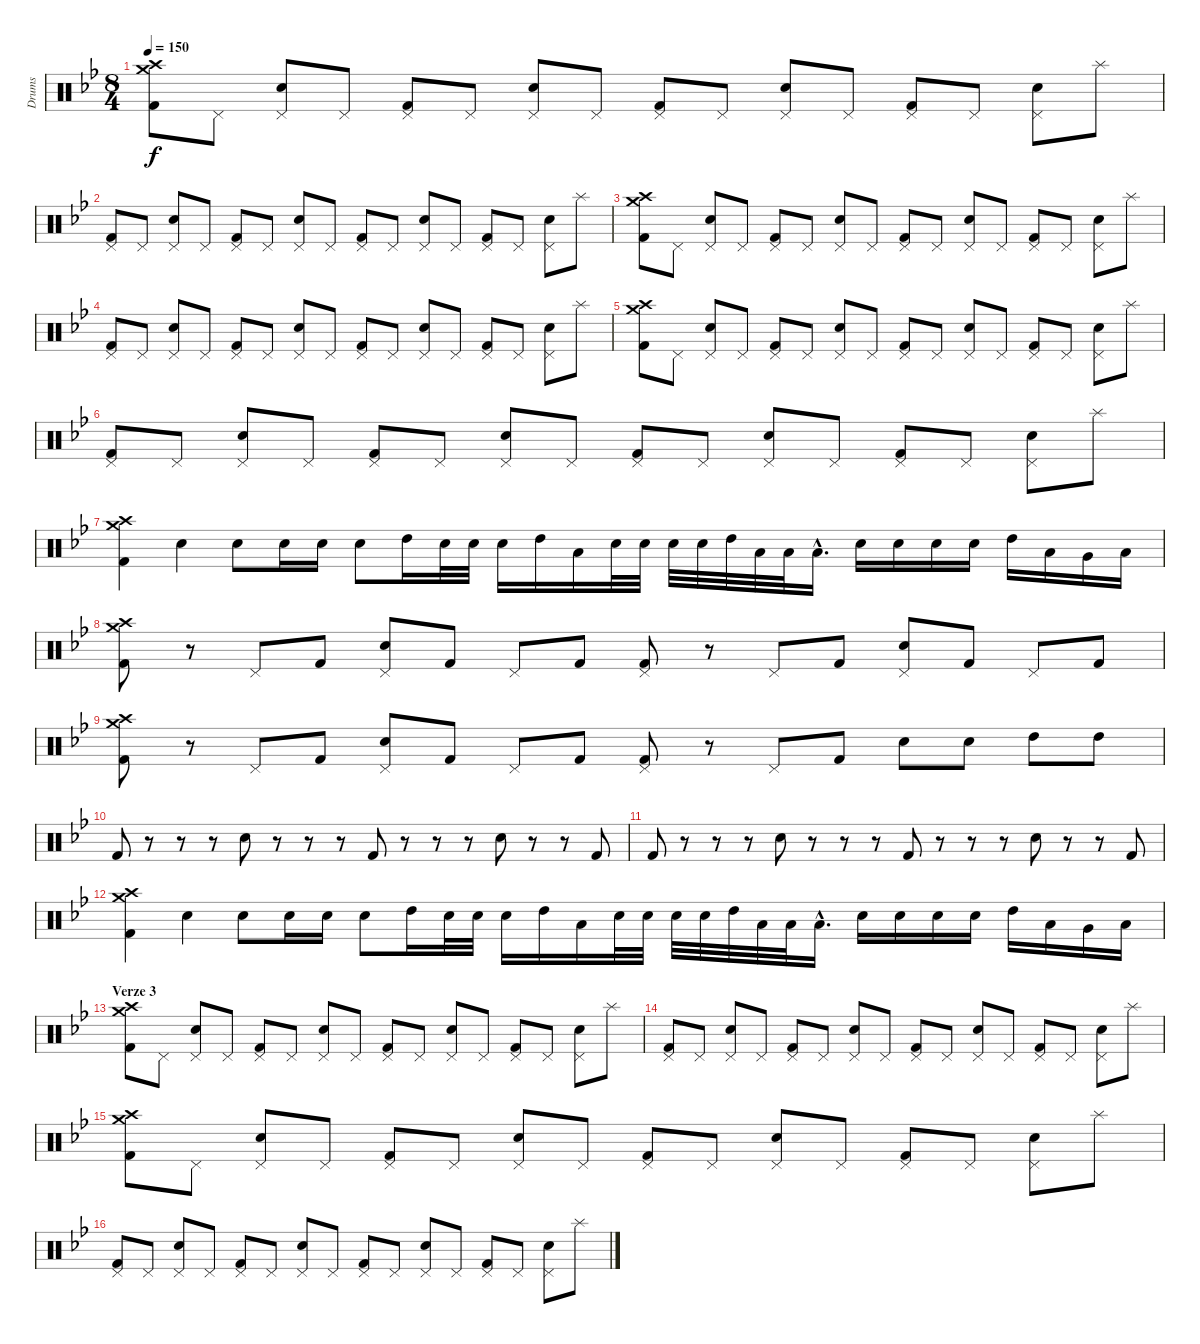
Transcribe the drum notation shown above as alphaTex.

\track ("Drums" "Drums") {instrument percussion}
\staff {score}
\articulation defaults
\ts (8 4)
\tempo 150
\clef neutral
\ks gminor
("Crash medium (hit)" "Crash high (hit)" "Kick (hit) 2").8{dy f} "Pedal Hi-Hat (hit)".8 ("Pedal Hi-Hat (hit)" "Snare (hit) 2").8 "Pedal Hi-Hat (hit)".8 ("Pedal Hi-Hat (hit)" "Kick (hit) 2").8 "Pedal Hi-Hat (hit)".8 ("Pedal Hi-Hat (hit)" "Snare (hit) 2").8 "Pedal Hi-Hat (hit)".8 ("Pedal Hi-Hat (hit)" "Kick (hit) 2").8 "Pedal Hi-Hat (hit)".8 ("Pedal Hi-Hat (hit)" "Snare (hit) 2").8 "Pedal Hi-Hat (hit)".8 ("Pedal Hi-Hat (hit)" "Kick (hit) 2").8 "Pedal Hi-Hat (hit)".8 ("Pedal Hi-Hat (hit)" "Snare (hit) 2").8 "Splash (hit)".8 |
("Pedal Hi-Hat (hit)" "Kick (hit) 2").8 "Pedal Hi-Hat (hit)".8 ("Pedal Hi-Hat (hit)" "Snare (hit) 2").8 "Pedal Hi-Hat (hit)".8 ("Pedal Hi-Hat (hit)" "Kick (hit) 2").8 "Pedal Hi-Hat (hit)".8 ("Pedal Hi-Hat (hit)" "Snare (hit) 2").8 "Pedal Hi-Hat (hit)".8 ("Pedal Hi-Hat (hit)" "Kick (hit) 2").8 "Pedal Hi-Hat (hit)".8 ("Pedal Hi-Hat (hit)" "Snare (hit) 2").8 "Pedal Hi-Hat (hit)".8 ("Pedal Hi-Hat (hit)" "Kick (hit) 2").8 "Pedal Hi-Hat (hit)".8 ("Pedal Hi-Hat (hit)" "Snare (hit) 2").8 "Splash (hit)".8 |
("Crash medium (hit)" "Crash high (hit)" "Kick (hit) 2").8 "Pedal Hi-Hat (hit)".8 ("Pedal Hi-Hat (hit)" "Snare (hit) 2").8 "Pedal Hi-Hat (hit)".8 ("Pedal Hi-Hat (hit)" "Kick (hit) 2").8 "Pedal Hi-Hat (hit)".8 ("Pedal Hi-Hat (hit)" "Snare (hit) 2").8 "Pedal Hi-Hat (hit)".8 ("Pedal Hi-Hat (hit)" "Kick (hit) 2").8 "Pedal Hi-Hat (hit)".8 ("Pedal Hi-Hat (hit)" "Snare (hit) 2").8 "Pedal Hi-Hat (hit)".8 ("Pedal Hi-Hat (hit)" "Kick (hit) 2").8 "Pedal Hi-Hat (hit)".8 ("Pedal Hi-Hat (hit)" "Snare (hit) 2").8 "Splash (hit)".8 |
("Pedal Hi-Hat (hit)" "Kick (hit) 2").8 "Pedal Hi-Hat (hit)".8 ("Pedal Hi-Hat (hit)" "Snare (hit) 2").8 "Pedal Hi-Hat (hit)".8 ("Pedal Hi-Hat (hit)" "Kick (hit) 2").8 "Pedal Hi-Hat (hit)".8 ("Pedal Hi-Hat (hit)" "Snare (hit) 2").8 "Pedal Hi-Hat (hit)".8 ("Pedal Hi-Hat (hit)" "Kick (hit) 2").8 "Pedal Hi-Hat (hit)".8 ("Pedal Hi-Hat (hit)" "Snare (hit) 2").8 "Pedal Hi-Hat (hit)".8 ("Pedal Hi-Hat (hit)" "Kick (hit) 2").8 "Pedal Hi-Hat (hit)".8 ("Pedal Hi-Hat (hit)" "Snare (hit) 2").8 "Splash (hit)".8 |
("Crash medium (hit)" "Crash high (hit)" "Kick (hit) 2").8 "Pedal Hi-Hat (hit)".8 ("Pedal Hi-Hat (hit)" "Snare (hit) 2").8 "Pedal Hi-Hat (hit)".8 ("Pedal Hi-Hat (hit)" "Kick (hit) 2").8 "Pedal Hi-Hat (hit)".8 ("Pedal Hi-Hat (hit)" "Snare (hit) 2").8 "Pedal Hi-Hat (hit)".8 ("Pedal Hi-Hat (hit)" "Kick (hit) 2").8 "Pedal Hi-Hat (hit)".8 ("Pedal Hi-Hat (hit)" "Snare (hit) 2").8 "Pedal Hi-Hat (hit)".8 ("Pedal Hi-Hat (hit)" "Kick (hit) 2").8 "Pedal Hi-Hat (hit)".8 ("Pedal Hi-Hat (hit)" "Snare (hit) 2").8 "Splash (hit)".8 |
("Pedal Hi-Hat (hit)" "Kick (hit) 2").8 "Pedal Hi-Hat (hit)".8 ("Pedal Hi-Hat (hit)" "Snare (hit) 2").8 "Pedal Hi-Hat (hit)".8 ("Pedal Hi-Hat (hit)" "Kick (hit) 2").8 "Pedal Hi-Hat (hit)".8 ("Pedal Hi-Hat (hit)" "Snare (hit) 2").8 "Pedal Hi-Hat (hit)".8 ("Pedal Hi-Hat (hit)" "Kick (hit) 2").8 "Pedal Hi-Hat (hit)".8 ("Pedal Hi-Hat (hit)" "Snare (hit) 2").8 "Pedal Hi-Hat (hit)".8 ("Pedal Hi-Hat (hit)" "Kick (hit) 2").8 "Pedal Hi-Hat (hit)".8 ("Pedal Hi-Hat (hit)" "Snare (hit) 2").8 "Splash (hit)".8 |
("Crash medium (hit)" "Crash high (hit)" "Kick (hit) 2").4 "Snare (hit) 2".4 "Snare (hit) 2".8 "Snare (hit) 2".16 "Snare (hit) 2".16 "Snare (hit) 2".8 "High Tom (hit)".16 "Snare (hit) 2".32 "Snare (hit) 2".32 "Snare (hit) 2".16 "High Tom (hit)".16 "Low Tom (hit)".16 "Snare (hit) 2".32 "Snare (hit) 2".32 "Snare (hit) 2".32 "Snare (hit) 2".32 "High Tom (hit)".32 "Low Tom (hit)".32 "Low Tom (hit)".32 "Low Tom (hit)"{hac}.16{d} "Snare (hit) 2".16 "Snare (hit) 2".16 "Snare (hit) 2".16 "Snare (hit) 2".16 "High Tom (hit)".16 "Low Tom (hit)".16 "Very Low Tom (hit)".16 "Low Floor Tom (hit)".16 |
("Crash medium (hit)" "Crash high (hit)" "Kick (hit) 2").8 r.8 "Pedal Hi-Hat (hit)".8 "Kick (hit) 2".8 ("Pedal Hi-Hat (hit)" "Snare (hit) 2").8 "Kick (hit) 2".8 "Pedal Hi-Hat (hit)".8 "Kick (hit) 2".8 ("Pedal Hi-Hat (hit)" "Kick (hit) 2").8 r.8 "Pedal Hi-Hat (hit)".8 "Kick (hit) 2".8 ("Pedal Hi-Hat (hit)" "Snare (hit) 2").8 "Kick (hit) 2".8 "Pedal Hi-Hat (hit)".8 "Kick (hit) 2".8 |
("Crash medium (hit)" "Crash high (hit)" "Kick (hit) 2").8 r.8 "Pedal Hi-Hat (hit)".8 "Kick (hit) 2".8 ("Pedal Hi-Hat (hit)" "Snare (hit) 2").8 "Kick (hit) 2".8 "Pedal Hi-Hat (hit)".8 "Kick (hit) 2".8 ("Pedal Hi-Hat (hit)" "Kick (hit) 2").8 r.8 "Pedal Hi-Hat (hit)".8 "Kick (hit) 2".8 "Electric Snare (hit)".8 "Snare (hit) 2".8 "High Tom (hit)".8 "High Tom (hit)".8 |
"Kick (hit) 2".8 r.8 r.8 r.8 "Snare (hit) 2".8 r.8 r.8 r.8 "Kick (hit) 2".8 r.8 r.8 r.8 "Snare (hit) 2".8 r.8 r.8 "Kick (hit) 2".8 |
"Kick (hit) 2".8 r.8 r.8 r.8 "Snare (hit) 2".8 r.8 r.8 r.8 "Kick (hit) 2".8 r.8 r.8 r.8 "Snare (hit) 2".8 r.8 r.8 "Kick (hit) 2".8 |
("Crash medium (hit)" "Crash high (hit)" "Kick (hit) 2").4 "Snare (hit) 2".4 "Snare (hit) 2".8 "Snare (hit) 2".16 "Snare (hit) 2".16 "Snare (hit) 2".8 "High Tom (hit)".16 "Snare (hit) 2".32 "Snare (hit) 2".32 "Snare (hit) 2".16 "High Tom (hit)".16 "Low Tom (hit)".16 "Snare (hit) 2".32 "Snare (hit) 2".32 "Snare (hit) 2".32 "Snare (hit) 2".32 "High Tom (hit)".32 "Low Tom (hit)".32 "Low Tom (hit)".32 "Low Tom (hit)"{hac}.16{d} "Snare (hit) 2".16 "Snare (hit) 2".16 "Snare (hit) 2".16 "Snare (hit) 2".16 "High Tom (hit)".16 "Low Tom (hit)".16 "Very Low Tom (hit)".16 "Low Floor Tom (hit)".16 |
\section ("" "Verze 3")
("Crash medium (hit)" "Crash high (hit)" "Kick (hit) 2").8 "Pedal Hi-Hat (hit)".8 ("Pedal Hi-Hat (hit)" "Snare (hit) 2").8 "Pedal Hi-Hat (hit)".8 ("Pedal Hi-Hat (hit)" "Kick (hit) 2").8 "Pedal Hi-Hat (hit)".8 ("Pedal Hi-Hat (hit)" "Snare (hit) 2").8 "Pedal Hi-Hat (hit)".8 ("Pedal Hi-Hat (hit)" "Kick (hit) 2").8 "Pedal Hi-Hat (hit)".8 ("Pedal Hi-Hat (hit)" "Snare (hit) 2").8 "Pedal Hi-Hat (hit)".8 ("Pedal Hi-Hat (hit)" "Kick (hit) 2").8 "Pedal Hi-Hat (hit)".8 ("Pedal Hi-Hat (hit)" "Snare (hit) 2").8 "Splash (hit)".8 |
("Pedal Hi-Hat (hit)" "Kick (hit) 2").8 "Pedal Hi-Hat (hit)".8 ("Pedal Hi-Hat (hit)" "Snare (hit) 2").8 "Pedal Hi-Hat (hit)".8 ("Pedal Hi-Hat (hit)" "Kick (hit) 2").8 "Pedal Hi-Hat (hit)".8 ("Pedal Hi-Hat (hit)" "Snare (hit) 2").8 "Pedal Hi-Hat (hit)".8 ("Pedal Hi-Hat (hit)" "Kick (hit) 2").8 "Pedal Hi-Hat (hit)".8 ("Pedal Hi-Hat (hit)" "Snare (hit) 2").8 "Pedal Hi-Hat (hit)".8 ("Pedal Hi-Hat (hit)" "Kick (hit) 2").8 "Pedal Hi-Hat (hit)".8 ("Pedal Hi-Hat (hit)" "Snare (hit) 2").8 "Splash (hit)".8 |
("Crash medium (hit)" "Crash high (hit)" "Kick (hit) 2").8 "Pedal Hi-Hat (hit)".8 ("Pedal Hi-Hat (hit)" "Snare (hit) 2").8 "Pedal Hi-Hat (hit)".8 ("Pedal Hi-Hat (hit)" "Kick (hit) 2").8 "Pedal Hi-Hat (hit)".8 ("Pedal Hi-Hat (hit)" "Snare (hit) 2").8 "Pedal Hi-Hat (hit)".8 ("Pedal Hi-Hat (hit)" "Kick (hit) 2").8 "Pedal Hi-Hat (hit)".8 ("Pedal Hi-Hat (hit)" "Snare (hit) 2").8 "Pedal Hi-Hat (hit)".8 ("Pedal Hi-Hat (hit)" "Kick (hit) 2").8 "Pedal Hi-Hat (hit)".8 ("Pedal Hi-Hat (hit)" "Snare (hit) 2").8 "Splash (hit)".8 |
("Pedal Hi-Hat (hit)" "Kick (hit) 2").8 "Pedal Hi-Hat (hit)".8 ("Pedal Hi-Hat (hit)" "Snare (hit) 2").8 "Pedal Hi-Hat (hit)".8 ("Pedal Hi-Hat (hit)" "Kick (hit) 2").8 "Pedal Hi-Hat (hit)".8 ("Pedal Hi-Hat (hit)" "Snare (hit) 2").8 "Pedal Hi-Hat (hit)".8 ("Pedal Hi-Hat (hit)" "Kick (hit) 2").8 "Pedal Hi-Hat (hit)".8 ("Pedal Hi-Hat (hit)" "Snare (hit) 2").8 "Pedal Hi-Hat (hit)".8 ("Pedal Hi-Hat (hit)" "Kick (hit) 2").8 "Pedal Hi-Hat (hit)".8 ("Pedal Hi-Hat (hit)" "Snare (hit) 2").8 "Splash (hit)".8
